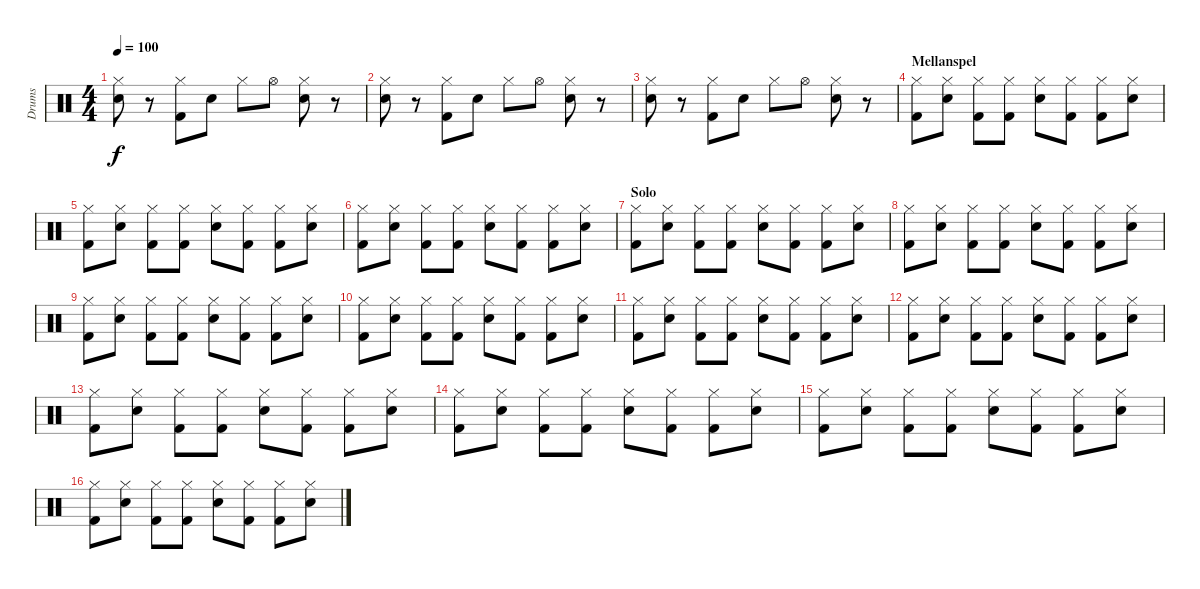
\track ("Drums" "Drums") {instrument percussion}
\staff {score}
\articulation defaults
\ts (4 4)
\tempo 100
\clef neutral
\ks c
("Hi-Hat (closed)" "Snare (hit) 2").8{dy f} r.8 ("Hi-Hat (closed)" "Kick (hit) 2").8 "Snare (hit) 2".8 "Hi-Hat (closed)".8 "Hi-Hat (open)".8 ("Hi-Hat (closed)" "Snare (hit) 2").8 r.8 |
("Hi-Hat (closed)" "Snare (hit) 2").8 r.8 ("Hi-Hat (closed)" "Kick (hit) 2").8 "Snare (hit) 2".8 "Hi-Hat (closed)".8 "Hi-Hat (open)".8 ("Hi-Hat (closed)" "Snare (hit) 2").8 r.8 |
("Hi-Hat (closed)" "Snare (hit) 2").8 r.8 ("Hi-Hat (closed)" "Kick (hit) 2").8 "Snare (hit) 2".8 "Hi-Hat (closed)".8 "Hi-Hat (open)".8 ("Hi-Hat (closed)" "Snare (hit) 2").8 r.8 |
\section ("" "Mellanspel")
("Hi-Hat (closed)" "Kick (hit) 2").8 ("Hi-Hat (closed)" "Snare (hit) 2").8 ("Hi-Hat (closed)" "Kick (hit) 2").8 ("Hi-Hat (closed)" "Kick (hit) 2").8 ("Hi-Hat (closed)" "Snare (hit) 2").8 ("Hi-Hat (closed)" "Kick (hit) 2").8 ("Hi-Hat (closed)" "Kick (hit) 2").8 ("Hi-Hat (closed)" "Snare (hit) 2").8 |
("Hi-Hat (closed)" "Kick (hit) 2").8 ("Hi-Hat (closed)" "Snare (hit) 2").8 ("Hi-Hat (closed)" "Kick (hit) 2").8 ("Hi-Hat (closed)" "Kick (hit) 2").8 ("Hi-Hat (closed)" "Snare (hit) 2").8 ("Hi-Hat (closed)" "Kick (hit) 2").8 ("Hi-Hat (closed)" "Kick (hit) 2").8 ("Hi-Hat (closed)" "Snare (hit) 2").8 |
("Hi-Hat (closed)" "Kick (hit) 2").8 ("Hi-Hat (closed)" "Snare (hit) 2").8 ("Hi-Hat (closed)" "Kick (hit) 2").8 ("Hi-Hat (closed)" "Kick (hit) 2").8 ("Hi-Hat (closed)" "Snare (hit) 2").8 ("Hi-Hat (closed)" "Kick (hit) 2").8 ("Hi-Hat (closed)" "Kick (hit) 2").8 ("Hi-Hat (closed)" "Snare (hit) 2").8 |
\section ("" "Solo")
("Hi-Hat (closed)" "Kick (hit) 2").8 ("Hi-Hat (closed)" "Snare (hit) 2").8 ("Hi-Hat (closed)" "Kick (hit) 2").8 ("Hi-Hat (closed)" "Kick (hit) 2").8 ("Hi-Hat (closed)" "Snare (hit) 2").8 ("Hi-Hat (closed)" "Kick (hit) 2").8 ("Hi-Hat (closed)" "Kick (hit) 2").8 ("Hi-Hat (closed)" "Snare (hit) 2").8 |
("Hi-Hat (closed)" "Kick (hit) 2").8 ("Hi-Hat (closed)" "Snare (hit) 2").8 ("Hi-Hat (closed)" "Kick (hit) 2").8 ("Hi-Hat (closed)" "Kick (hit) 2").8 ("Hi-Hat (closed)" "Snare (hit) 2").8 ("Hi-Hat (closed)" "Kick (hit) 2").8 ("Hi-Hat (closed)" "Kick (hit) 2").8 ("Hi-Hat (closed)" "Snare (hit) 2").8 |
("Hi-Hat (closed)" "Kick (hit) 2").8 ("Hi-Hat (closed)" "Snare (hit) 2").8 ("Hi-Hat (closed)" "Kick (hit) 2").8 ("Hi-Hat (closed)" "Kick (hit) 2").8 ("Hi-Hat (closed)" "Snare (hit) 2").8 ("Hi-Hat (closed)" "Kick (hit) 2").8 ("Hi-Hat (closed)" "Kick (hit) 2").8 ("Hi-Hat (closed)" "Snare (hit) 2").8 |
("Hi-Hat (closed)" "Kick (hit) 2").8 ("Hi-Hat (closed)" "Snare (hit) 2").8 ("Hi-Hat (closed)" "Kick (hit) 2").8 ("Hi-Hat (closed)" "Kick (hit) 2").8 ("Hi-Hat (closed)" "Snare (hit) 2").8 ("Hi-Hat (closed)" "Kick (hit) 2").8 ("Hi-Hat (closed)" "Kick (hit) 2").8 ("Hi-Hat (closed)" "Snare (hit) 2").8 |
("Hi-Hat (closed)" "Kick (hit) 2").8 ("Hi-Hat (closed)" "Snare (hit) 2").8 ("Hi-Hat (closed)" "Kick (hit) 2").8 ("Hi-Hat (closed)" "Kick (hit) 2").8 ("Hi-Hat (closed)" "Snare (hit) 2").8 ("Hi-Hat (closed)" "Kick (hit) 2").8 ("Hi-Hat (closed)" "Kick (hit) 2").8 ("Hi-Hat (closed)" "Snare (hit) 2").8 |
("Hi-Hat (closed)" "Kick (hit) 2").8 ("Hi-Hat (closed)" "Snare (hit) 2").8 ("Hi-Hat (closed)" "Kick (hit) 2").8 ("Hi-Hat (closed)" "Kick (hit) 2").8 ("Hi-Hat (closed)" "Snare (hit) 2").8 ("Hi-Hat (closed)" "Kick (hit) 2").8 ("Hi-Hat (closed)" "Kick (hit) 2").8 ("Hi-Hat (closed)" "Snare (hit) 2").8 |
("Hi-Hat (closed)" "Kick (hit) 2").8 ("Hi-Hat (closed)" "Snare (hit) 2").8 ("Hi-Hat (closed)" "Kick (hit) 2").8 ("Hi-Hat (closed)" "Kick (hit) 2").8 ("Hi-Hat (closed)" "Snare (hit) 2").8 ("Hi-Hat (closed)" "Kick (hit) 2").8 ("Hi-Hat (closed)" "Kick (hit) 2").8 ("Hi-Hat (closed)" "Snare (hit) 2").8 |
("Hi-Hat (closed)" "Kick (hit) 2").8 ("Hi-Hat (closed)" "Snare (hit) 2").8 ("Hi-Hat (closed)" "Kick (hit) 2").8 ("Hi-Hat (closed)" "Kick (hit) 2").8 ("Hi-Hat (closed)" "Snare (hit) 2").8 ("Hi-Hat (closed)" "Kick (hit) 2").8 ("Hi-Hat (closed)" "Kick (hit) 2").8 ("Hi-Hat (closed)" "Snare (hit) 2").8 |
("Hi-Hat (closed)" "Kick (hit) 2").8 ("Hi-Hat (closed)" "Snare (hit) 2").8 ("Hi-Hat (closed)" "Kick (hit) 2").8 ("Hi-Hat (closed)" "Kick (hit) 2").8 ("Hi-Hat (closed)" "Snare (hit) 2").8 ("Hi-Hat (closed)" "Kick (hit) 2").8 ("Hi-Hat (closed)" "Kick (hit) 2").8 ("Hi-Hat (closed)" "Snare (hit) 2").8 |
("Hi-Hat (closed)" "Kick (hit) 2").8 ("Hi-Hat (closed)" "Snare (hit) 2").8 ("Hi-Hat (closed)" "Kick (hit) 2").8 ("Hi-Hat (closed)" "Kick (hit) 2").8 ("Hi-Hat (closed)" "Snare (hit) 2").8 ("Hi-Hat (closed)" "Kick (hit) 2").8 ("Hi-Hat (closed)" "Kick (hit) 2").8 ("Hi-Hat (closed)" "Snare (hit) 2").8
